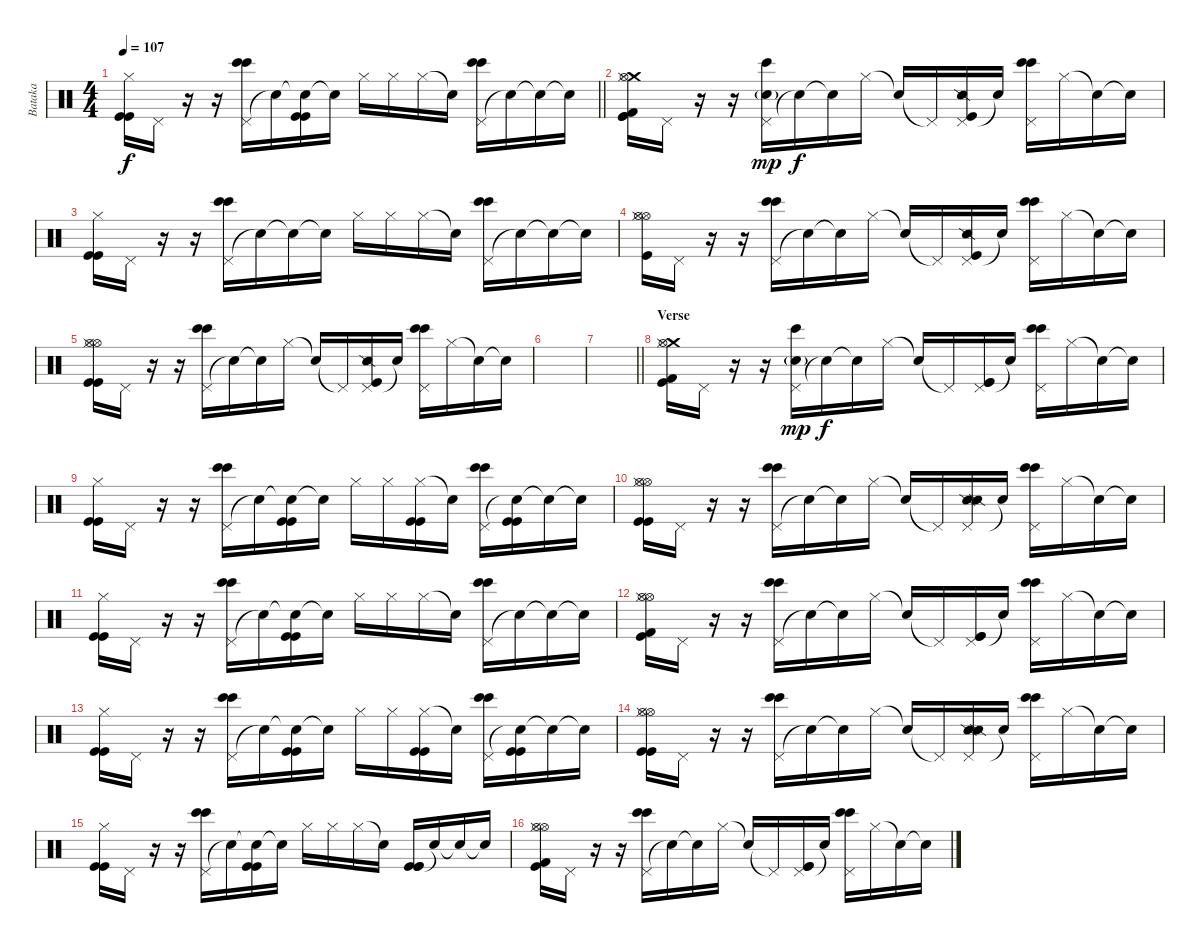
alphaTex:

\track ("Bataka" "Bataka") {instrument percussion}
\staff {score}
\articulation defaults
\ts (4 4)
\tempo 107
\clef neutral
\barLineRight lightlight
\ks c
("Hi-Hat (closed)" "Kick (hit)" "Kick (hit)").16{dy f} "Pedal Hi-Hat (hit)".16 r.16 r.16 ("Pedal Hi-Hat (hit)" "Bongo High (hit)" "Bongo High (hit)").16 "Snare (hit)"{t}.16 ("Snare (hit)"{t} "Kick (hit)" "Kick (hit)").16 "Snare (hit)"{t}.16 "Hi-Hat (closed)".16 "Hi-Hat (closed)".16 "Hi-Hat (closed)".16 "Snare (hit)"{t}.16 ("Pedal Hi-Hat (hit)" "Bongo High (hit)" "Bongo High (hit)").16 "Snare (hit)"{t}.16 "Snare (hit)"{t}.16 "Snare (hit)"{t}.16 |
("Crash medium (hit)" "Hi-Hat (open)" "Hi-Hat (closed)" "Kick (hit)" "Kick (hit)" "Kick (hit) 2").16 "Pedal Hi-Hat (hit)".16 r.16 r.16 ("Pedal Hi-Hat (hit)" "Bongo High (hit)" "Electric Snare (hit)"{g}).16{dy mp} "Snare (hit)"{t}.16{dy f} "Snare (hit)"{t}.16 "Hi-Hat (closed)".16 "Snare (hit)"{t}.16 "Pedal Hi-Hat (hit)"{t}.16 ("Pedal Hi-Hat (hit)" "Snare (side stick) 2" "Kick (hit)").16 "Snare (hit)"{t}.16 ("Pedal Hi-Hat (hit)" "Bongo High (hit)" "Bongo High (hit)").16 "Hi-Hat (closed)".16 "Snare (hit)"{t}.16 "Snare (hit)"{t}.16 |
("Hi-Hat (closed)" "Kick (hit)" "Kick (hit)").16 "Pedal Hi-Hat (hit)".16 r.16 r.16 ("Pedal Hi-Hat (hit)" "Bongo High (hit)" "Bongo High (hit)").16 "Snare (hit)"{t}.16 "Snare (hit)"{t}.16 "Snare (hit)"{t}.16 "Hi-Hat (closed)".16 "Hi-Hat (closed)".16 "Hi-Hat (closed)".16 "Snare (hit)"{t}.16 ("Pedal Hi-Hat (hit)" "Bongo High (hit)" "Bongo High (hit)").16 "Snare (hit)"{t}.16 "Snare (hit)"{t}.16 "Snare (hit)"{t}.16 |
("Hi-Hat (open)" "Hi-Hat (open)" "Hi-Hat (closed)" "Kick (hit)").16 "Pedal Hi-Hat (hit)".16 r.16 r.16 ("Pedal Hi-Hat (hit)" "Bongo High (hit)" "Bongo High (hit)").16 "Snare (hit)"{t}.16 "Snare (hit)"{t}.16 "Hi-Hat (closed)".16 "Snare (hit)"{t}.16 "Pedal Hi-Hat (hit)"{t}.16 ("Pedal Hi-Hat (hit)" "Snare (side stick) 2" "Kick (hit)").16 "Snare (hit)"{t}.16 ("Pedal Hi-Hat (hit)" "Bongo High (hit)" "Bongo High (hit)").16 "Hi-Hat (closed)".16 "Snare (hit)"{t}.16 "Snare (hit)"{t}.16 |
("Hi-Hat (open)" "Hi-Hat (open)" "Hi-Hat (closed)" "Kick (hit)" "Kick (hit)").16 "Pedal Hi-Hat (hit)".16 r.16 r.16 ("Pedal Hi-Hat (hit)" "Bongo High (hit)" "Bongo High (hit)").16 "Snare (hit)"{t}.16 "Snare (hit)"{t}.16 "Hi-Hat (closed)".16 "Snare (hit)"{t}.16 "Pedal Hi-Hat (hit)"{t}.16 ("Pedal Hi-Hat (hit)" "Snare (side stick) 2" "Kick (hit)").16 "Snare (hit)"{t}.16 ("Pedal Hi-Hat (hit)" "Bongo High (hit)" "Bongo High (hit)").16 "Hi-Hat (closed)".16 "Snare (hit)"{t}.16 "Snare (hit)"{t}.16 |
|
\barLineRight lightlight
|
\section ("" "Verse")
("Crash medium (hit)" "Hi-Hat (open)" "Hi-Hat (closed)" "Kick (hit)" "Kick (hit) 2").16 "Pedal Hi-Hat (hit)".16 r.16 r.16 ("Pedal Hi-Hat (hit)" "Bongo High (hit)" "Electric Snare (hit)"{g}).16{dy mp} "Snare (hit)"{t}.16{dy f} "Snare (hit)"{t}.16 "Hi-Hat (closed)".16 "Snare (hit)"{t}.16 "Pedal Hi-Hat (hit)"{t}.16 ("Pedal Hi-Hat (hit)" "Kick (hit)" "Kick (hit)").16 "Snare (hit)"{t}.16 ("Pedal Hi-Hat (hit)" "Bongo High (hit)" "Bongo High (hit)").16 "Hi-Hat (closed)".16 "Snare (hit)"{t}.16 "Snare (hit)"{t}.16 |
("Hi-Hat (closed)" "Kick (hit)" "Kick (hit)").16 "Pedal Hi-Hat (hit)".16 r.16 r.16 ("Pedal Hi-Hat (hit)" "Bongo High (hit)" "Bongo High (hit)").16 "Snare (hit)"{t}.16 ("Snare (hit)"{t} "Kick (hit)" "Kick (hit)").16 "Snare (hit)"{t}.16 "Hi-Hat (closed)".16 "Hi-Hat (closed)".16 ("Hi-Hat (closed)" "Kick (hit)" "Kick (hit)").16 "Snare (hit)"{t}.16 ("Pedal Hi-Hat (hit)" "Bongo High (hit)" "Bongo High (hit)").16 ("Snare (hit)"{t} "Kick (hit)" "Kick (hit)").16 "Snare (hit)"{t}.16 "Snare (hit)"{t}.16 |
("Hi-Hat (open)" "Hi-Hat (open)" "Hi-Hat (closed)" "Kick (hit)" "Kick (hit)").16 "Pedal Hi-Hat (hit)".16 r.16 r.16 ("Pedal Hi-Hat (hit)" "Bongo High (hit)" "Bongo High (hit)").16 "Snare (hit)"{t}.16 "Snare (hit)"{t}.16 "Hi-Hat (closed)".16 "Snare (hit)"{t}.16 "Pedal Hi-Hat (hit)"{t}.16 ("Pedal Hi-Hat (hit)" "Snare (side stick) 2" "Snare (side stick) 2").16 "Snare (hit)"{t}.16 ("Pedal Hi-Hat (hit)" "Bongo High (hit)" "Bongo High (hit)").16 "Hi-Hat (closed)".16 "Snare (hit)"{t}.16 "Snare (hit)"{t}.16 |
("Hi-Hat (closed)" "Kick (hit)" "Kick (hit)").16 "Pedal Hi-Hat (hit)".16 r.16 r.16 ("Pedal Hi-Hat (hit)" "Bongo High (hit)" "Bongo High (hit)").16 "Snare (hit)"{t}.16 ("Snare (hit)"{t} "Kick (hit)" "Kick (hit)").16 "Snare (hit)"{t}.16 "Hi-Hat (closed)".16 "Hi-Hat (closed)".16 "Hi-Hat (closed)".16 "Snare (hit)"{t}.16 ("Pedal Hi-Hat (hit)" "Bongo High (hit)" "Bongo High (hit)").16 "Snare (hit)"{t}.16 "Snare (hit)"{t}.16 "Snare (hit)"{t}.16 |
("Hi-Hat (open)" "Hi-Hat (open)" "Hi-Hat (closed)" "Kick (hit)" "Kick (hit) 2").16 "Pedal Hi-Hat (hit)".16 r.16 r.16 ("Pedal Hi-Hat (hit)" "Bongo High (hit)" "Bongo High (hit)").16 "Snare (hit)"{t}.16 "Snare (hit)"{t}.16 "Hi-Hat (closed)".16 "Snare (hit)"{t}.16 "Pedal Hi-Hat (hit)"{t}.16 ("Pedal Hi-Hat (hit)" "Kick (hit)" "Kick (hit)").16 "Snare (hit)"{t}.16 ("Pedal Hi-Hat (hit)" "Bongo High (hit)" "Bongo High (hit)").16 "Hi-Hat (closed)".16 "Snare (hit)"{t}.16 "Snare (hit)"{t}.16 |
("Hi-Hat (closed)" "Kick (hit)" "Kick (hit)").16 "Pedal Hi-Hat (hit)".16 r.16 r.16 ("Pedal Hi-Hat (hit)" "Bongo High (hit)" "Bongo High (hit)").16 "Snare (hit)"{t}.16 ("Snare (hit)"{t} "Kick (hit)" "Kick (hit)").16 "Snare (hit)"{t}.16 "Hi-Hat (closed)".16 "Hi-Hat (closed)".16 ("Hi-Hat (closed)" "Kick (hit)" "Kick (hit)").16 "Snare (hit)"{t}.16 ("Pedal Hi-Hat (hit)" "Bongo High (hit)" "Bongo High (hit)").16 ("Snare (hit)"{t} "Kick (hit)" "Kick (hit)").16 "Snare (hit)"{t}.16 "Snare (hit)"{t}.16 |
("Hi-Hat (open)" "Hi-Hat (open)" "Hi-Hat (closed)" "Kick (hit)" "Kick (hit)").16 "Pedal Hi-Hat (hit)".16 r.16 r.16 ("Pedal Hi-Hat (hit)" "Bongo High (hit)" "Bongo High (hit)").16 "Snare (hit)"{t}.16 "Snare (hit)"{t}.16 "Hi-Hat (closed)".16 "Snare (hit)"{t}.16 "Pedal Hi-Hat (hit)"{t}.16 ("Pedal Hi-Hat (hit)" "Snare (side stick) 2" "Snare (side stick) 2").16 "Snare (hit)"{t}.16 ("Pedal Hi-Hat (hit)" "Bongo High (hit)" "Bongo High (hit)").16 "Hi-Hat (closed)".16 "Snare (hit)"{t}.16 "Snare (hit)"{t}.16 |
("Hi-Hat (closed)" "Kick (hit)" "Kick (hit)").16 "Pedal Hi-Hat (hit)".16 r.16 r.16 ("Pedal Hi-Hat (hit)" "Bongo High (hit)" "Bongo High (hit)").16 "Snare (hit)"{t}.16 ("Snare (hit)"{t} "Kick (hit)" "Kick (hit)").16 "Snare (hit)"{t}.16 "Hi-Hat (closed)".16 "Hi-Hat (closed)".16 "Hi-Hat (closed)".16 "Snare (hit)"{t}.16 ("Kick (hit)" "Kick (hit)" "Kick (hit)").16 "Snare (hit)"{t}.16 "Snare (hit)"{t}.16 "Snare (hit)"{t}.16 |
("Hi-Hat (open)" "Hi-Hat (open)" "Hi-Hat (closed)" "Kick (hit)" "Kick (hit) 2").16 "Pedal Hi-Hat (hit)".16 r.16 r.16 ("Pedal Hi-Hat (hit)" "Bongo High (hit)" "Bongo High (hit)").16 "Snare (hit)"{t}.16 "Snare (hit)"{t}.16 "Hi-Hat (closed)".16 "Snare (hit)"{t}.16 "Pedal Hi-Hat (hit)"{t}.16 ("Pedal Hi-Hat (hit)" "Kick (hit)" "Kick (hit)").16 "Snare (hit)"{t}.16 ("Pedal Hi-Hat (hit)" "Bongo High (hit)" "Bongo High (hit)").16 "Hi-Hat (closed)".16 "Snare (hit)"{t}.16 "Snare (hit)"{t}.16
